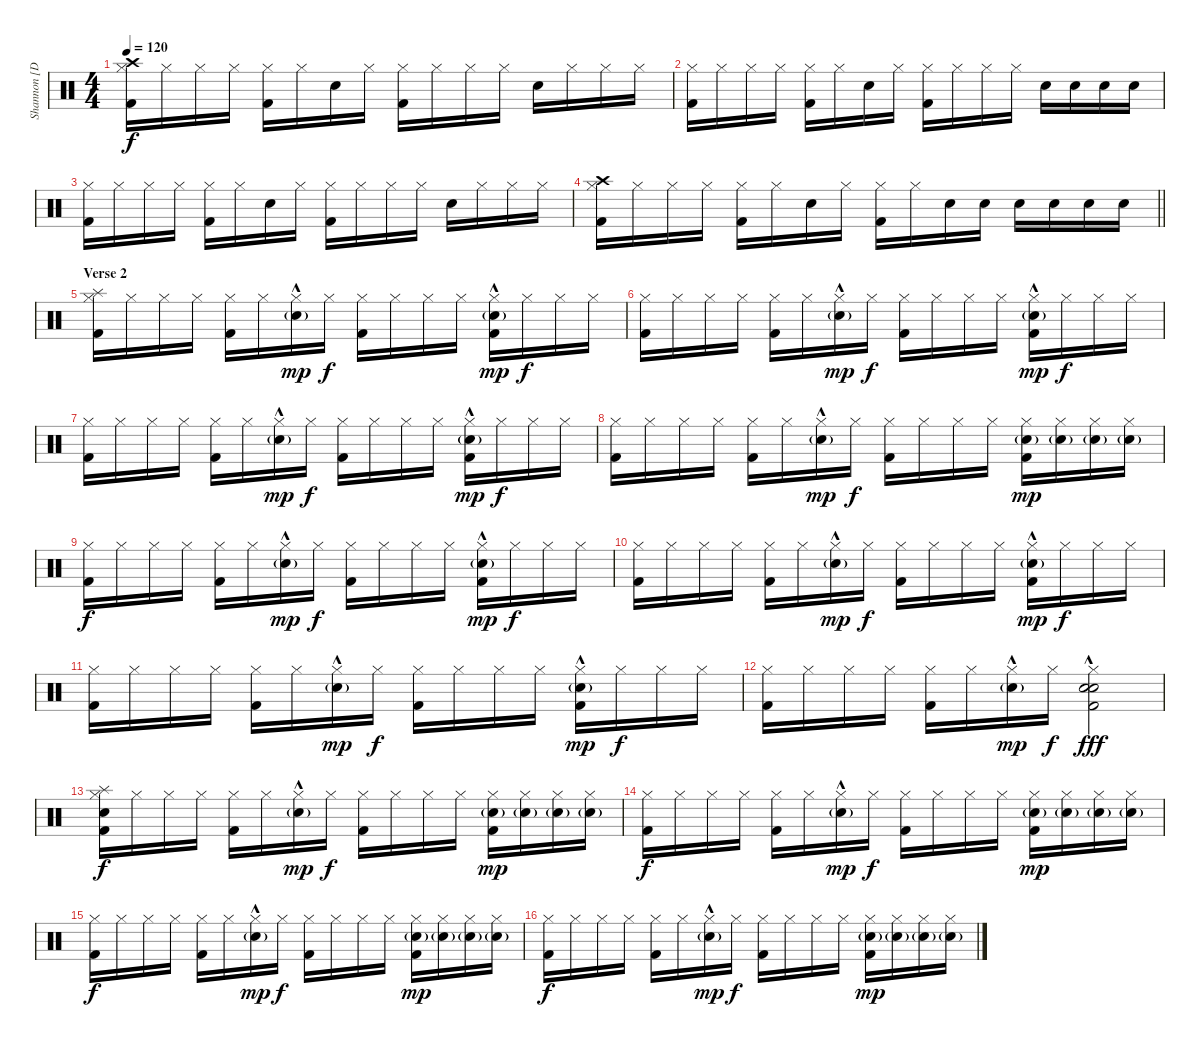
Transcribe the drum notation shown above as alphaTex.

\track ("Shannon [Drums]" "Shannon [D") {instrument percussion}
\staff {score}
\articulation defaults
\ts (4 4)
\tempo 120
\clef neutral
\ks c
("Crash high (hit)" "Hi-Hat (closed)" "Kick (hit) 2").16{dy f} "Hi-Hat (closed)".16 "Hi-Hat (closed)".16 "Hi-Hat (closed)".16 ("Hi-Hat (closed)" "Kick (hit) 2").16 "Hi-Hat (closed)".16 "Electric Snare (hit)".16 "Hi-Hat (closed)".16 ("Hi-Hat (closed)" "Kick (hit) 2").16 "Hi-Hat (closed)".16 "Hi-Hat (closed)".16 "Hi-Hat (closed)".16 "Electric Snare (hit)".16 "Hi-Hat (closed)".16 "Hi-Hat (closed)".16 "Hi-Hat (closed)".16 |
("Hi-Hat (closed)" "Kick (hit) 2").16 "Hi-Hat (closed)".16 "Hi-Hat (closed)".16 "Hi-Hat (closed)".16 ("Hi-Hat (closed)" "Kick (hit) 2").16 "Hi-Hat (closed)".16 "Electric Snare (hit)".16 "Hi-Hat (closed)".16 ("Hi-Hat (closed)" "Kick (hit) 2").16 "Hi-Hat (closed)".16 "Hi-Hat (closed)".16 "Hi-Hat (closed)".16 "Electric Snare (hit)".16 "Electric Snare (hit)".16 "Electric Snare (hit)".16 "Electric Snare (hit)".16 |
("Hi-Hat (closed)" "Kick (hit) 2").16 "Hi-Hat (closed)".16 "Hi-Hat (closed)".16 "Hi-Hat (closed)".16 ("Hi-Hat (closed)" "Kick (hit) 2").16 "Hi-Hat (closed)".16 "Electric Snare (hit)".16 "Hi-Hat (closed)".16 ("Hi-Hat (closed)" "Kick (hit) 2").16 "Hi-Hat (closed)".16 "Hi-Hat (closed)".16 "Hi-Hat (closed)".16 "Electric Snare (hit)".16 "Hi-Hat (closed)".16 "Hi-Hat (closed)".16 "Hi-Hat (closed)".16 |
\barLineRight lightlight
("Crash high (hit)" "Hi-Hat (closed)" "Kick (hit) 2").16 "Hi-Hat (closed)".16 "Hi-Hat (closed)".16 "Hi-Hat (closed)".16 ("Hi-Hat (closed)" "Kick (hit) 2").16 "Hi-Hat (closed)".16 "Electric Snare (hit)".16 "Hi-Hat (closed)".16 ("Hi-Hat (closed)" "Kick (hit) 2").16 "Hi-Hat (closed)".16 "Electric Snare (hit)".16 "Electric Snare (hit)".16 "Electric Snare (hit)".16 "Electric Snare (hit)".16 "Electric Snare (hit)".16 "Electric Snare (hit)".16 |
\section ("" "Verse 2")
("Splash (hit)" "Hi-Hat (closed)" "Kick (hit) 2").16 "Hi-Hat (closed)".16 "Hi-Hat (closed)".16 "Hi-Hat (closed)".16 ("Hi-Hat (closed)" "Kick (hit) 2").16 "Hi-Hat (closed)".16 ("Hi-Hat (closed)"{hac} "Snare (hit) 2"{g}).16{dy mp} "Hi-Hat (closed)".16{dy f} ("Hi-Hat (closed)" "Kick (hit) 2").16 "Hi-Hat (closed)".16 "Hi-Hat (closed)".16 "Hi-Hat (closed)".16 ("Hi-Hat (closed)"{hac} "Snare (hit) 2"{g} "Kick (hit) 2").16{dy mp} "Hi-Hat (closed)".16{dy f} "Hi-Hat (closed)".16 "Hi-Hat (closed)".16 |
("Hi-Hat (closed)" "Kick (hit) 2").16 "Hi-Hat (closed)".16 "Hi-Hat (closed)".16 "Hi-Hat (closed)".16 ("Hi-Hat (closed)" "Kick (hit) 2").16 "Hi-Hat (closed)".16 ("Hi-Hat (closed)"{hac} "Snare (hit) 2"{g}).16{dy mp} "Hi-Hat (closed)".16{dy f} ("Hi-Hat (closed)" "Kick (hit) 2").16 "Hi-Hat (closed)".16 "Hi-Hat (closed)".16 "Hi-Hat (closed)".16 ("Hi-Hat (closed)"{hac} "Snare (hit) 2"{g} "Kick (hit) 2").16{dy mp} "Hi-Hat (closed)".16{dy f} "Hi-Hat (closed)".16 "Hi-Hat (closed)".16 |
("Hi-Hat (closed)" "Kick (hit) 2").16 "Hi-Hat (closed)".16 "Hi-Hat (closed)".16 "Hi-Hat (closed)".16 ("Hi-Hat (closed)" "Kick (hit) 2").16 "Hi-Hat (closed)".16 ("Hi-Hat (closed)"{hac} "Snare (hit) 2"{g}).16{dy mp} "Hi-Hat (closed)".16{dy f} ("Hi-Hat (closed)" "Kick (hit) 2").16 "Hi-Hat (closed)".16 "Hi-Hat (closed)".16 "Hi-Hat (closed)".16 ("Hi-Hat (closed)"{hac} "Snare (hit) 2"{g} "Kick (hit) 2").16{dy mp} "Hi-Hat (closed)".16{dy f} "Hi-Hat (closed)".16 "Hi-Hat (closed)".16 |
("Hi-Hat (closed)" "Kick (hit) 2").16 "Hi-Hat (closed)".16 "Hi-Hat (closed)".16 "Hi-Hat (closed)".16 ("Hi-Hat (closed)" "Kick (hit) 2").16 "Hi-Hat (closed)".16 ("Hi-Hat (closed)"{hac} "Snare (hit) 2"{g}).16{dy mp} "Hi-Hat (closed)".16{dy f} ("Hi-Hat (closed)" "Kick (hit) 2").16 "Hi-Hat (closed)".16 "Hi-Hat (closed)".16 "Hi-Hat (closed)".16 ("Hi-Hat (closed)" "Snare (hit) 2"{g} "Kick (hit) 2").16{dy mp} ("Hi-Hat (closed)" "Snare (hit) 2"{g}).16 ("Hi-Hat (closed)" "Snare (hit) 2"{g}).16 ("Hi-Hat (closed)" "Snare (hit) 2"{g}).16 |
("Hi-Hat (closed)" "Kick (hit) 2").16{dy f} "Hi-Hat (closed)".16 "Hi-Hat (closed)".16 "Hi-Hat (closed)".16 ("Hi-Hat (closed)" "Kick (hit) 2").16 "Hi-Hat (closed)".16 ("Hi-Hat (closed)"{hac} "Snare (hit) 2"{g}).16{dy mp} "Hi-Hat (closed)".16{dy f} ("Hi-Hat (closed)" "Kick (hit) 2").16 "Hi-Hat (closed)".16 "Hi-Hat (closed)".16 "Hi-Hat (closed)".16 ("Hi-Hat (closed)"{hac} "Snare (hit) 2"{g} "Kick (hit) 2").16{dy mp} "Hi-Hat (closed)".16{dy f} "Hi-Hat (closed)".16 "Hi-Hat (closed)".16 |
("Hi-Hat (closed)" "Kick (hit) 2").16 "Hi-Hat (closed)".16 "Hi-Hat (closed)".16 "Hi-Hat (closed)".16 ("Hi-Hat (closed)" "Kick (hit) 2").16 "Hi-Hat (closed)".16 ("Hi-Hat (closed)"{hac} "Snare (hit) 2"{g}).16{dy mp} "Hi-Hat (closed)".16{dy f} ("Hi-Hat (closed)" "Kick (hit) 2").16 "Hi-Hat (closed)".16 "Hi-Hat (closed)".16 "Hi-Hat (closed)".16 ("Hi-Hat (closed)"{hac} "Snare (hit) 2"{g} "Kick (hit) 2").16{dy mp} "Hi-Hat (closed)".16{dy f} "Hi-Hat (closed)".16 "Hi-Hat (closed)".16 |
("Hi-Hat (closed)" "Kick (hit) 2").16 "Hi-Hat (closed)".16 "Hi-Hat (closed)".16 "Hi-Hat (closed)".16 ("Hi-Hat (closed)" "Kick (hit) 2").16 "Hi-Hat (closed)".16 ("Hi-Hat (closed)"{hac} "Snare (hit) 2"{g}).16{dy mp} "Hi-Hat (closed)".16{dy f} ("Hi-Hat (closed)" "Kick (hit) 2").16 "Hi-Hat (closed)".16 "Hi-Hat (closed)".16 "Hi-Hat (closed)".16 ("Hi-Hat (closed)"{hac} "Snare (hit) 2"{g} "Kick (hit) 2").16{dy mp} "Hi-Hat (closed)".16{dy f} "Hi-Hat (closed)".16 "Hi-Hat (closed)".16 |
("Hi-Hat (closed)" "Kick (hit) 2").16 "Hi-Hat (closed)".16 "Hi-Hat (closed)".16 "Hi-Hat (closed)".16 ("Hi-Hat (closed)" "Kick (hit) 2").16 "Hi-Hat (closed)".16 ("Hi-Hat (closed)"{hac} "Snare (hit) 2"{g}).16{dy mp} "Hi-Hat (closed)".16{dy f} ("Hi-Hat (closed)"{hac} "Hand Clap (hit)" "Snare (hit) 2" "Kick (hit) 2").2{dy fff} |
("Splash (hit)" "Hi-Hat (closed)" "Hand Clap (hit)" "Kick (hit) 2").16{dy f} "Hi-Hat (closed)".16 "Hi-Hat (closed)".16 "Hi-Hat (closed)".16 ("Hi-Hat (closed)" "Kick (hit) 2").16 "Hi-Hat (closed)".16 ("Hi-Hat (closed)"{hac} "Snare (hit) 2"{g}).16{dy mp} "Hi-Hat (closed)".16{dy f} ("Hi-Hat (closed)" "Kick (hit) 2").16 "Hi-Hat (closed)".16 "Hi-Hat (closed)".16 "Hi-Hat (closed)".16 ("Hi-Hat (closed)" "Snare (hit) 2"{g} "Kick (hit) 2").16{dy mp} ("Hi-Hat (closed)" "Snare (hit) 2"{g}).16 ("Hi-Hat (closed)" "Snare (hit) 2"{g}).16 ("Hi-Hat (closed)" "Snare (hit) 2"{g}).16 |
("Hi-Hat (closed)" "Kick (hit) 2").16{dy f} "Hi-Hat (closed)".16 "Hi-Hat (closed)".16 "Hi-Hat (closed)".16 ("Hi-Hat (closed)" "Kick (hit) 2").16 "Hi-Hat (closed)".16 ("Hi-Hat (closed)"{hac} "Snare (hit) 2"{g}).16{dy mp} "Hi-Hat (closed)".16{dy f} ("Hi-Hat (closed)" "Kick (hit) 2").16 "Hi-Hat (closed)".16 "Hi-Hat (closed)".16 "Hi-Hat (closed)".16 ("Hi-Hat (closed)" "Snare (hit) 2"{g} "Kick (hit) 2").16{dy mp} ("Hi-Hat (closed)" "Snare (hit) 2"{g}).16 ("Hi-Hat (closed)" "Snare (hit) 2"{g}).16 ("Hi-Hat (closed)" "Snare (hit) 2"{g}).16 |
("Hi-Hat (closed)" "Kick (hit) 2").16{dy f} "Hi-Hat (closed)".16 "Hi-Hat (closed)".16 "Hi-Hat (closed)".16 ("Hi-Hat (closed)" "Kick (hit) 2").16 "Hi-Hat (closed)".16 ("Hi-Hat (closed)"{hac} "Snare (hit) 2"{g}).16{dy mp} "Hi-Hat (closed)".16{dy f} ("Hi-Hat (closed)" "Kick (hit) 2").16 "Hi-Hat (closed)".16 "Hi-Hat (closed)".16 "Hi-Hat (closed)".16 ("Hi-Hat (closed)" "Snare (hit) 2"{g} "Kick (hit) 2").16{dy mp} ("Hi-Hat (closed)" "Snare (hit) 2"{g}).16 ("Hi-Hat (closed)" "Snare (hit) 2"{g}).16 ("Hi-Hat (closed)" "Snare (hit) 2"{g}).16 |
("Hi-Hat (closed)" "Kick (hit) 2").16{dy f} "Hi-Hat (closed)".16 "Hi-Hat (closed)".16 "Hi-Hat (closed)".16 ("Hi-Hat (closed)" "Kick (hit) 2").16 "Hi-Hat (closed)".16 ("Hi-Hat (closed)"{hac} "Snare (hit) 2"{g}).16{dy mp} "Hi-Hat (closed)".16{dy f} ("Hi-Hat (closed)" "Kick (hit) 2").16 "Hi-Hat (closed)".16 "Hi-Hat (closed)".16 "Hi-Hat (closed)".16 ("Hi-Hat (closed)" "Snare (hit) 2"{g} "Kick (hit) 2").16{dy mp} ("Hi-Hat (closed)" "Snare (hit) 2"{g}).16 ("Hi-Hat (closed)" "Snare (hit) 2"{g}).16 ("Hi-Hat (closed)" "Snare (hit) 2"{g}).16
